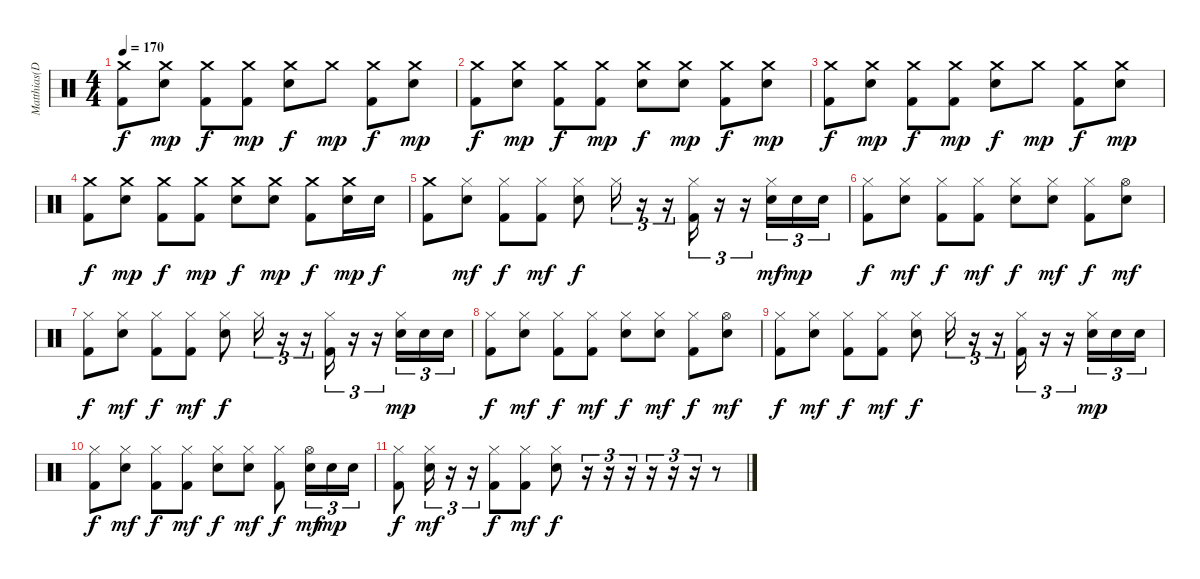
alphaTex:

\track ("Matthias(Drums)" "Matthias(D") {instrument percussion}
\staff {score}
\articulation defaults
\ts (4 4)
\tempo 170
\clef neutral
\ks c
("Crash medium (hit)" "Kick (hit) 2").8{dy f} ("Crash medium (hit)" "Snare (hit) 2").8{dy mp} ("Crash medium (hit)" "Kick (hit) 2").8{dy f} ("Crash medium (hit)" "Kick (hit) 2").8{dy mp} ("Crash medium (hit)" "Snare (hit) 2").8{dy f} "Crash medium (hit)".8{dy mp} ("Crash medium (hit)" "Kick (hit) 2").8{dy f} ("Crash medium (hit)" "Snare (hit) 2").8{dy mp} |
("Crash medium (hit)" "Kick (hit) 2").8{dy f} ("Crash medium (hit)" "Snare (hit) 2").8{dy mp} ("Crash medium (hit)" "Kick (hit) 2").8{dy f} ("Crash medium (hit)" "Kick (hit) 2").8{dy mp} ("Crash medium (hit)" "Snare (hit) 2").8{dy f} ("Crash medium (hit)" "Snare (hit) 2").8{dy mp} ("Crash medium (hit)" "Kick (hit) 2").8{dy f} ("Crash medium (hit)" "Snare (hit) 2").8{dy mp} |
("Crash medium (hit)" "Kick (hit) 2").8{dy f} ("Crash medium (hit)" "Snare (hit) 2").8{dy mp} ("Crash medium (hit)" "Kick (hit) 2").8{dy f} ("Crash medium (hit)" "Kick (hit) 2").8{dy mp} ("Crash medium (hit)" "Snare (hit) 2").8{dy f} "Crash medium (hit)".8{dy mp} ("Crash medium (hit)" "Kick (hit) 2").8{dy f} ("Crash medium (hit)" "Snare (hit) 2").8{dy mp} |
("Crash medium (hit)" "Kick (hit) 2").8{dy f} ("Crash medium (hit)" "Snare (hit) 2").8{dy mp} ("Crash medium (hit)" "Kick (hit) 2").8{dy f} ("Crash medium (hit)" "Kick (hit) 2").8{dy mp} ("Crash medium (hit)" "Snare (hit) 2").8{dy f} ("Crash medium (hit)" "Snare (hit) 2").8{dy mp} ("Crash medium (hit)" "Kick (hit) 2").8{dy f} ("Crash medium (hit)" "Snare (hit) 2").16{dy mp} "Snare (hit) 2".16{dy f} |
("Crash medium (hit)" "Kick (hit) 2").8 ("Hi-Hat (closed)" "Snare (hit) 2").8{dy mf} ("Hi-Hat (closed)" "Kick (hit) 2").8{dy f} ("Hi-Hat (closed)" "Kick (hit) 2").8{dy mf} ("Hi-Hat (closed)" "Snare (hit) 2").8{dy f} "Hi-Hat (closed)".16{tu (3 2)} r.16{tu (3 2)} r.16{tu (3 2)} ("Hi-Hat (closed)" "Kick (hit) 2").16{tu (3 2)} r.16{tu (3 2)} r.16{tu (3 2)} ("Hi-Hat (closed)" "Snare (hit) 2").16{tu (3 2) dy mf} "Snare (hit) 2".16{tu (3 2) dy mp} "Snare (hit) 2".16{tu (3 2)} |
("Hi-Hat (closed)" "Kick (hit) 2").8{dy f} ("Hi-Hat (closed)" "Snare (hit) 2").8{dy mf} ("Hi-Hat (closed)" "Kick (hit) 2").8{dy f} ("Hi-Hat (closed)" "Kick (hit) 2").8{dy mf} ("Hi-Hat (closed)" "Snare (hit) 2").8{dy f} ("Hi-Hat (closed)" "Snare (hit) 2").8{dy mf} ("Hi-Hat (closed)" "Kick (hit) 2").8{dy f} ("Hi-Hat (open)" "Snare (hit) 2").8{dy mf} |
("Hi-Hat (closed)" "Kick (hit) 2").8{dy f} ("Hi-Hat (closed)" "Snare (hit) 2").8{dy mf} ("Hi-Hat (closed)" "Kick (hit) 2").8{dy f} ("Hi-Hat (closed)" "Kick (hit) 2").8{dy mf} ("Hi-Hat (closed)" "Snare (hit) 2").8{dy f} "Hi-Hat (closed)".16{tu (3 2)} r.16{tu (3 2)} r.16{tu (3 2)} ("Hi-Hat (closed)" "Kick (hit) 2").16{tu (3 2)} r.16{tu (3 2)} r.16{tu (3 2)} ("Hi-Hat (closed)" "Snare (hit) 2").16{tu (3 2) dy mp} "Snare (hit) 2".16{tu (3 2)} "Snare (hit) 2".16{tu (3 2)} |
("Hi-Hat (closed)" "Kick (hit) 2").8{dy f} ("Hi-Hat (closed)" "Snare (hit) 2").8{dy mf} ("Hi-Hat (closed)" "Kick (hit) 2").8{dy f} ("Hi-Hat (closed)" "Kick (hit) 2").8{dy mf} ("Hi-Hat (closed)" "Snare (hit) 2").8{dy f} ("Hi-Hat (closed)" "Snare (hit) 2").8{dy mf} ("Hi-Hat (closed)" "Kick (hit) 2").8{dy f} ("Hi-Hat (open)" "Snare (hit) 2").8{dy mf} |
("Hi-Hat (closed)" "Kick (hit) 2").8{dy f} ("Hi-Hat (closed)" "Snare (hit) 2").8{dy mf} ("Hi-Hat (closed)" "Kick (hit) 2").8{dy f} ("Hi-Hat (closed)" "Kick (hit) 2").8{dy mf} ("Hi-Hat (closed)" "Snare (hit) 2").8{dy f} "Hi-Hat (closed)".16{tu (3 2)} r.16{tu (3 2)} r.16{tu (3 2)} ("Hi-Hat (closed)" "Kick (hit) 2").16{tu (3 2)} r.16{tu (3 2)} r.16{tu (3 2)} ("Hi-Hat (closed)" "Snare (hit) 2").16{tu (3 2) dy mp} "Snare (hit) 2".16{tu (3 2)} "Snare (hit) 2".16{tu (3 2)} |
("Hi-Hat (closed)" "Kick (hit) 2").8{dy f} ("Hi-Hat (closed)" "Snare (hit) 2").8{dy mf} ("Hi-Hat (closed)" "Kick (hit) 2").8{dy f} ("Hi-Hat (closed)" "Kick (hit) 2").8{dy mf} ("Hi-Hat (closed)" "Snare (hit) 2").8{dy f} ("Hi-Hat (closed)" "Snare (hit) 2").8{dy mf} ("Hi-Hat (closed)" "Kick (hit) 2").8{dy f} ("Hi-Hat (open)" "Snare (hit) 2").16{tu (3 2) dy mf} "Snare (hit) 2".16{tu (3 2) dy mp} "Snare (hit) 2".16{tu (3 2)} |
("Hi-Hat (closed)" "Kick (hit) 2").8{dy f} ("Hi-Hat (closed)" "Snare (hit) 2").16{tu (3 2) dy mf} r.16{tu (3 2)} r.16{tu (3 2)} ("Hi-Hat (closed)" "Kick (hit) 2").8{dy f} ("Hi-Hat (closed)" "Kick (hit) 2").8{dy mf} ("Hi-Hat (closed)" "Snare (hit) 2").8{dy f} r.16{tu (3 2)} r.16{tu (3 2)} r.16{tu (3 2)} r.16{tu (3 2)} r.16{tu (3 2)} r.16{tu (3 2)} r.8
